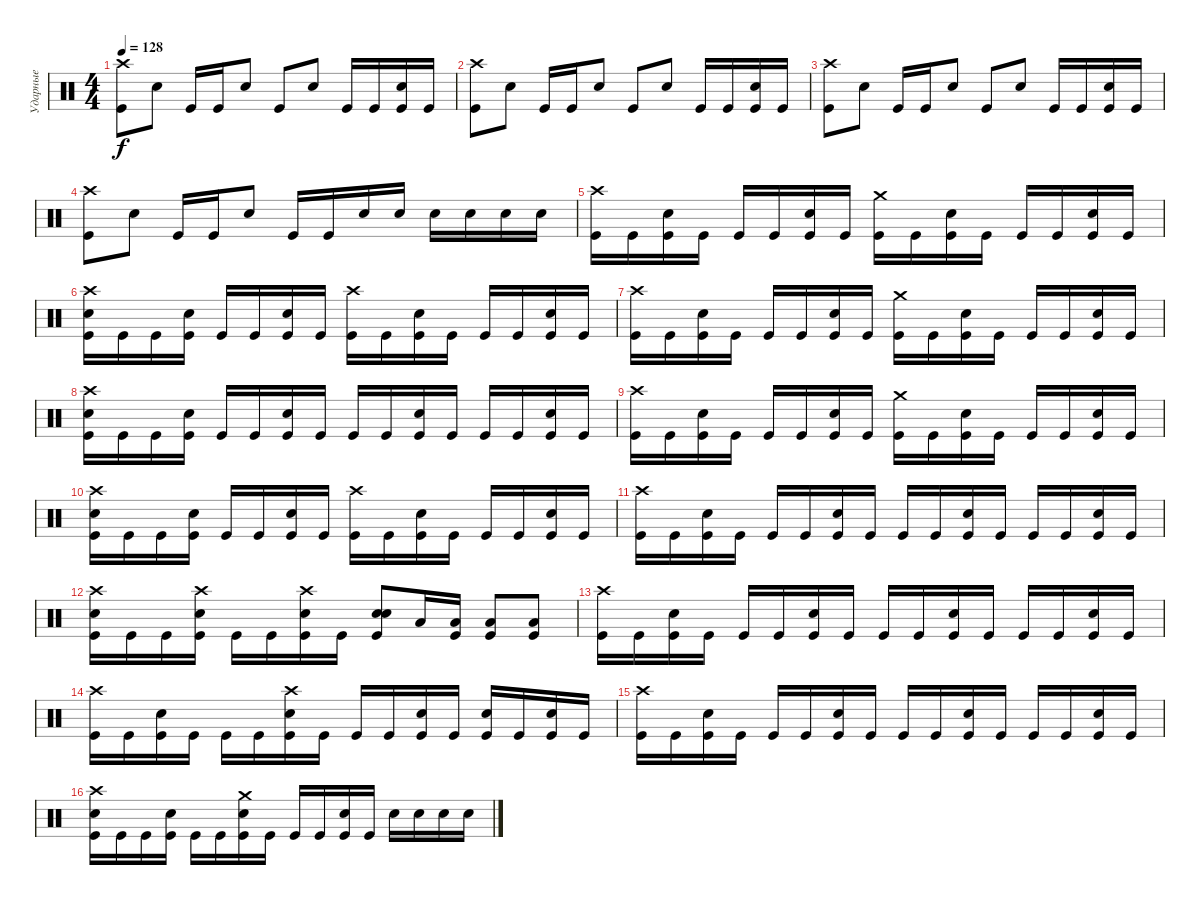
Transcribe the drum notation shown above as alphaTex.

\track ("Ударные" "Ударные") {instrument percussion}
\staff {score}
\articulation defaults
\ts (4 4)
\tempo 128
\clef neutral
\ks c
("Crash high (hit)" "Kick (hit)").8{dy f} "Electric Snare (hit)".8 "Kick (hit)".16 "Kick (hit)".16 "Electric Snare (hit)".8 "Kick (hit)".8 "Electric Snare (hit)".8 "Kick (hit)".16 "Kick (hit)".16 ("Electric Snare (hit)" "Kick (hit)").16 "Kick (hit)".16 |
("Crash high (hit)" "Kick (hit)").8 "Electric Snare (hit)".8 "Kick (hit)".16 "Kick (hit)".16 "Electric Snare (hit)".8 "Kick (hit)".8 "Electric Snare (hit)".8 "Kick (hit)".16 "Kick (hit)".16 ("Electric Snare (hit)" "Kick (hit)").16 "Kick (hit)".16 |
("Crash high (hit)" "Kick (hit)").8 "Electric Snare (hit)".8 "Kick (hit)".16 "Kick (hit)".16 "Electric Snare (hit)".8 "Kick (hit)".8 "Electric Snare (hit)".8 "Kick (hit)".16 "Kick (hit)".16 ("Electric Snare (hit)" "Kick (hit)").16 "Kick (hit)".16 |
("Crash high (hit)" "Kick (hit)").8 "Electric Snare (hit)".8 "Kick (hit)".16 "Kick (hit)".16 "Electric Snare (hit)".8 "Kick (hit)".16 "Kick (hit)".16 "Electric Snare (hit)".16 "Electric Snare (hit)".16 "Electric Snare (hit)".16 "Electric Snare (hit)".16 "Electric Snare (hit)".16 "Electric Snare (hit)".16 |
("Crash high (hit)" "Kick (hit)").16 "Kick (hit)".16 ("Electric Snare (hit)" "Kick (hit)").16 "Kick (hit)".16 "Kick (hit)".16 "Kick (hit)".16 ("Electric Snare (hit)" "Kick (hit)").16 "Kick (hit)".16 ("Crash medium (hit)" "Kick (hit)").16 "Kick (hit)".16 ("Electric Snare (hit)" "Kick (hit)").16 "Kick (hit)".16 "Kick (hit)".16 "Kick (hit)".16 ("Electric Snare (hit)" "Kick (hit)").16 "Kick (hit)".16 |
("Crash high (hit)" "Electric Snare (hit)" "Kick (hit)").16 "Kick (hit)".16 "Kick (hit)".16 ("Electric Snare (hit)" "Kick (hit)").16 "Kick (hit)".16 "Kick (hit)".16 ("Electric Snare (hit)" "Kick (hit)").16 "Kick (hit)".16 ("Crash high (hit)" "Kick (hit)").16 "Kick (hit)".16 ("Electric Snare (hit)" "Kick (hit)").16 "Kick (hit)".16 "Kick (hit)".16 "Kick (hit)".16 ("Electric Snare (hit)" "Kick (hit)").16 "Kick (hit)".16 |
("Crash high (hit)" "Kick (hit)").16 "Kick (hit)".16 ("Electric Snare (hit)" "Kick (hit)").16 "Kick (hit)".16 "Kick (hit)".16 "Kick (hit)".16 ("Electric Snare (hit)" "Kick (hit)").16 "Kick (hit)".16 ("Crash medium (hit)" "Kick (hit)").16 "Kick (hit)".16 ("Electric Snare (hit)" "Kick (hit)").16 "Kick (hit)".16 "Kick (hit)".16 "Kick (hit)".16 ("Electric Snare (hit)" "Kick (hit)").16 "Kick (hit)".16 |
("Crash high (hit)" "Electric Snare (hit)" "Kick (hit)").16 "Kick (hit)".16 "Kick (hit)".16 ("Electric Snare (hit)" "Kick (hit)").16 "Kick (hit)".16 "Kick (hit)".16 ("Electric Snare (hit)" "Kick (hit)").16 "Kick (hit)".16 "Kick (hit)".16 "Kick (hit)".16 ("Electric Snare (hit)" "Kick (hit)").16 "Kick (hit)".16 "Kick (hit)".16 "Kick (hit)".16 ("Electric Snare (hit)" "Kick (hit)").16 "Kick (hit)".16 |
("Crash high (hit)" "Kick (hit)").16 "Kick (hit)".16 ("Electric Snare (hit)" "Kick (hit)").16 "Kick (hit)".16 "Kick (hit)".16 "Kick (hit)".16 ("Electric Snare (hit)" "Kick (hit)").16 "Kick (hit)".16 ("Crash medium (hit)" "Kick (hit)").16 "Kick (hit)".16 ("Electric Snare (hit)" "Kick (hit)").16 "Kick (hit)".16 "Kick (hit)".16 "Kick (hit)".16 ("Electric Snare (hit)" "Kick (hit)").16 "Kick (hit)".16 |
("Crash high (hit)" "Electric Snare (hit)" "Kick (hit)").16 "Kick (hit)".16 "Kick (hit)".16 ("Electric Snare (hit)" "Kick (hit)").16 "Kick (hit)".16 "Kick (hit)".16 ("Electric Snare (hit)" "Kick (hit)").16 "Kick (hit)".16 ("Crash high (hit)" "Kick (hit)").16 "Kick (hit)".16 ("Electric Snare (hit)" "Kick (hit)").16 "Kick (hit)".16 "Kick (hit)".16 "Kick (hit)".16 ("Electric Snare (hit)" "Kick (hit)").16 "Kick (hit)".16 |
("Crash high (hit)" "Kick (hit)").16 "Kick (hit)".16 ("Electric Snare (hit)" "Kick (hit)").16 "Kick (hit)".16 "Kick (hit)".16 "Kick (hit)".16 ("Electric Snare (hit)" "Kick (hit)").16 "Kick (hit)".16 "Kick (hit)".16 "Kick (hit)".16 ("Electric Snare (hit)" "Kick (hit)").16 "Kick (hit)".16 "Kick (hit)".16 "Kick (hit)".16 ("Electric Snare (hit)" "Kick (hit)").16 "Kick (hit)".16 |
("Crash high (hit)" "Electric Snare (hit)" "Kick (hit)").16 "Kick (hit)".16 "Kick (hit)".16 ("Crash high (hit)" "Electric Snare (hit)" "Kick (hit)").16 "Kick (hit)".16 "Kick (hit)".16 ("Crash high (hit)" "Electric Snare (hit)" "Kick (hit)").16 "Kick (hit)".16 ("Electric Snare (hit)" "Electric Snare (hit)" "Kick (hit)").8 "Low Tom (hit)".16 ("Low Tom (hit)" "Kick (hit)").16 ("Low Tom (hit)" "Kick (hit)").8 ("Low Tom (hit)" "Kick (hit)").8 |
("Crash high (hit)" "Kick (hit)").16 "Kick (hit)".16 ("Electric Snare (hit)" "Kick (hit)").16 "Kick (hit)".16 "Kick (hit)".16 "Kick (hit)".16 ("Electric Snare (hit)" "Kick (hit)").16 "Kick (hit)".16 "Kick (hit)".16 "Kick (hit)".16 ("Electric Snare (hit)" "Kick (hit)").16 "Kick (hit)".16 "Kick (hit)".16 "Kick (hit)".16 ("Electric Snare (hit)" "Kick (hit)").16 "Kick (hit)".16 |
("Crash high (hit)" "Kick (hit)").16 "Kick (hit)".16 ("Electric Snare (hit)" "Kick (hit)").16 "Kick (hit)".16 "Kick (hit)".16 "Kick (hit)".16 ("Crash high (hit)" "Electric Snare (hit)" "Kick (hit)").16 "Kick (hit)".16 "Kick (hit)".16 "Kick (hit)".16 ("Electric Snare (hit)" "Kick (hit)").16 "Kick (hit)".16 ("Electric Snare (hit)" "Kick (hit)").16 "Kick (hit)".16 ("Electric Snare (hit)" "Kick (hit)").16 "Kick (hit)".16 |
("Crash high (hit)" "Kick (hit)").16 "Kick (hit)".16 ("Electric Snare (hit)" "Kick (hit)").16 "Kick (hit)".16 "Kick (hit)".16 "Kick (hit)".16 ("Electric Snare (hit)" "Kick (hit)").16 "Kick (hit)".16 "Kick (hit)".16 "Kick (hit)".16 ("Electric Snare (hit)" "Kick (hit)").16 "Kick (hit)".16 "Kick (hit)".16 "Kick (hit)".16 ("Electric Snare (hit)" "Kick (hit)").16 "Kick (hit)".16 |
("Crash high (hit)" "Electric Snare (hit)" "Kick (hit)").16 "Kick (hit)".16 "Kick (hit)".16 ("Electric Snare (hit)" "Kick (hit)").16 "Kick (hit)".16 "Kick (hit)".16 ("Crash medium (hit)" "Electric Snare (hit)" "Kick (hit)").16 "Kick (hit)".16 "Kick (hit)".16 "Kick (hit)".16 ("Electric Snare (hit)" "Kick (hit)").16 "Kick (hit)".16 "Electric Snare (hit)".16 "Electric Snare (hit)".16 "Electric Snare (hit)".16 "Electric Snare (hit)".16
